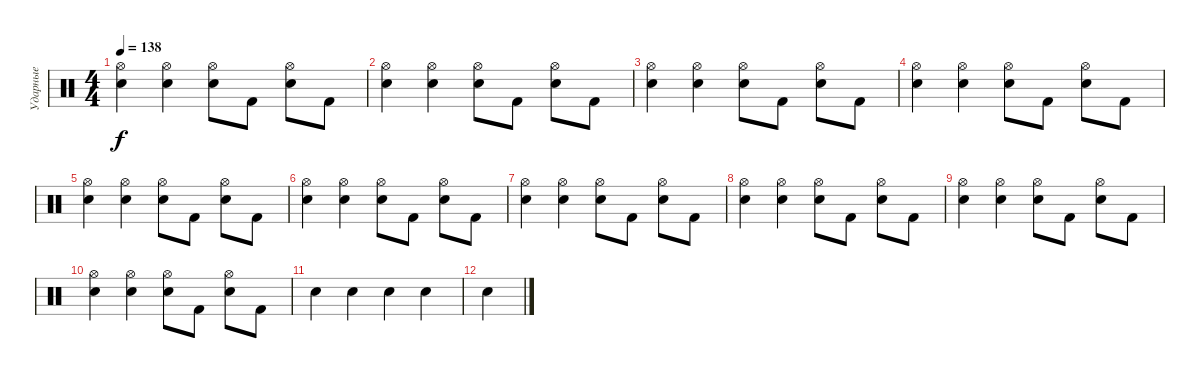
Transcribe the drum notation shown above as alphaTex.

\track ("Ударные" "Ударные") {instrument percussion}
\staff {score}
\articulation defaults
\ts (4 4)
\tempo 138
\clef neutral
\ks c
("Snare (hit) 2" "Hi-Hat (open)").4{dy f} ("Snare (hit) 2" "Hi-Hat (open)").4 ("Snare (hit) 2" "Hi-Hat (open)").8 "Kick (hit) 2".8 ("Hi-Hat (open)" "Snare (hit) 2").8 "Kick (hit) 2".8 |
("Snare (hit) 2" "Hi-Hat (open)").4 ("Snare (hit) 2" "Hi-Hat (open)").4 ("Snare (hit) 2" "Hi-Hat (open)").8 "Kick (hit) 2".8 ("Hi-Hat (open)" "Snare (hit) 2").8 "Kick (hit) 2".8 |
("Snare (hit) 2" "Hi-Hat (open)").4 ("Snare (hit) 2" "Hi-Hat (open)").4 ("Snare (hit) 2" "Hi-Hat (open)").8 "Kick (hit) 2".8 ("Hi-Hat (open)" "Snare (hit) 2").8 "Kick (hit) 2".8 |
("Snare (hit) 2" "Hi-Hat (open)").4 ("Snare (hit) 2" "Hi-Hat (open)").4 ("Snare (hit) 2" "Hi-Hat (open)").8 "Kick (hit) 2".8 ("Hi-Hat (open)" "Snare (hit) 2").8 "Kick (hit) 2".8 |
("Snare (hit) 2" "Hi-Hat (open)").4 ("Snare (hit) 2" "Hi-Hat (open)").4 ("Snare (hit) 2" "Hi-Hat (open)").8 "Kick (hit) 2".8 ("Hi-Hat (open)" "Snare (hit) 2").8 "Kick (hit) 2".8 |
("Snare (hit) 2" "Hi-Hat (open)").4 ("Snare (hit) 2" "Hi-Hat (open)").4 ("Snare (hit) 2" "Hi-Hat (open)").8 "Kick (hit) 2".8 ("Hi-Hat (open)" "Snare (hit) 2").8 "Kick (hit) 2".8 |
("Snare (hit) 2" "Hi-Hat (open)").4 ("Snare (hit) 2" "Hi-Hat (open)").4 ("Snare (hit) 2" "Hi-Hat (open)").8 "Kick (hit) 2".8 ("Hi-Hat (open)" "Snare (hit) 2").8 "Kick (hit) 2".8 |
("Snare (hit) 2" "Hi-Hat (open)").4 ("Snare (hit) 2" "Hi-Hat (open)").4 ("Snare (hit) 2" "Hi-Hat (open)").8 "Kick (hit) 2".8 ("Hi-Hat (open)" "Snare (hit) 2").8 "Kick (hit) 2".8 |
("Snare (hit) 2" "Hi-Hat (open)").4 ("Snare (hit) 2" "Hi-Hat (open)").4 ("Snare (hit) 2" "Hi-Hat (open)").8 "Kick (hit) 2".8 ("Hi-Hat (open)" "Snare (hit) 2").8 "Kick (hit) 2".8 |
("Snare (hit) 2" "Hi-Hat (open)").4 ("Snare (hit) 2" "Hi-Hat (open)").4 ("Snare (hit) 2" "Hi-Hat (open)").8 "Kick (hit) 2".8 ("Hi-Hat (open)" "Snare (hit) 2").8 "Kick (hit) 2".8 |
"Hand Clap (hit)".4 "Hand Clap (hit)".4 "Hand Clap (hit)".4 "Hand Clap (hit)".4 |
"Hand Clap (hit)".4
